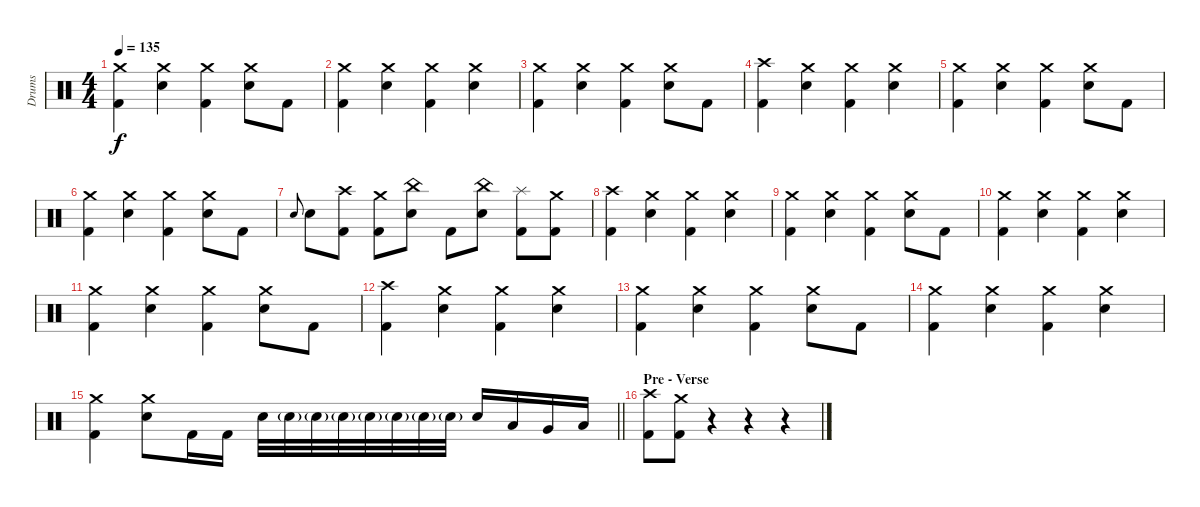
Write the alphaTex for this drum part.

\track ("Drums" "Drums") {instrument percussion}
\staff {score}
\articulation defaults
\ts (4 4)
\tempo 135
\clef neutral
\ks c
("Crash medium (hit)" "Kick (hit) 2").4{dy f} ("Crash medium (hit)" "Electric Snare (hit)").4 ("Crash medium (hit)" "Kick (hit) 2").4 ("Crash medium (hit)" "Electric Snare (hit)").8 "Kick (hit) 2".8 |
("Crash medium (hit)" "Kick (hit) 2").4 ("Crash medium (hit)" "Electric Snare (hit)").4 ("Crash medium (hit)" "Kick (hit) 2").4 ("Crash medium (hit)" "Electric Snare (hit)").4 |
("Crash medium (hit)" "Kick (hit) 2").4 ("Crash medium (hit)" "Electric Snare (hit)").4 ("Crash medium (hit)" "Kick (hit) 2").4 ("Crash medium (hit)" "Electric Snare (hit)").8 "Kick (hit) 2".8 |
("Crash high (hit)" "Kick (hit) 2").4 ("Crash medium (hit)" "Electric Snare (hit)").4 ("Crash medium (hit)" "Kick (hit) 2").4 ("Crash medium (hit)" "Electric Snare (hit)").4 |
("Crash medium (hit)" "Kick (hit) 2").4 ("Crash medium (hit)" "Electric Snare (hit)").4 ("Crash medium (hit)" "Kick (hit) 2").4 ("Crash medium (hit)" "Electric Snare (hit)").8 "Kick (hit) 2".8 |
("Crash medium (hit)" "Kick (hit) 2").4 ("Crash medium (hit)" "Electric Snare (hit)").4 ("Crash medium (hit)" "Kick (hit) 2").4 ("Crash medium (hit)" "Electric Snare (hit)").8 "Kick (hit) 2".8 |
"Electric Snare (hit)".8{gr onbeat} "Electric Snare (hit)".8 ("Crash high (hit)" "Kick (hit) 2").8 ("Crash medium (hit)" "Kick (hit) 2").8 ("China (hit)" "Electric Snare (hit)").8 "Kick (hit) 2".8 ("China (hit)" "Electric Snare (hit)").8 ("Splash (hit)" "Kick (hit) 2").8 ("Crash medium (hit)" "Kick (hit) 2").8 |
("Crash high (hit)" "Kick (hit) 2").4 ("Crash medium (hit)" "Electric Snare (hit)").4 ("Crash medium (hit)" "Kick (hit) 2").4 ("Crash medium (hit)" "Electric Snare (hit)").4 |
("Crash medium (hit)" "Kick (hit) 2").4 ("Crash medium (hit)" "Electric Snare (hit)").4 ("Crash medium (hit)" "Kick (hit) 2").4 ("Crash medium (hit)" "Electric Snare (hit)").8 "Kick (hit) 2".8 |
("Crash medium (hit)" "Kick (hit) 2").4 ("Crash medium (hit)" "Electric Snare (hit)").4 ("Crash medium (hit)" "Kick (hit) 2").4 ("Crash medium (hit)" "Electric Snare (hit)").4 |
("Crash medium (hit)" "Kick (hit) 2").4 ("Crash medium (hit)" "Electric Snare (hit)").4 ("Crash medium (hit)" "Kick (hit) 2").4 ("Crash medium (hit)" "Electric Snare (hit)").8 "Kick (hit) 2".8 |
("Crash high (hit)" "Kick (hit) 2").4 ("Crash medium (hit)" "Electric Snare (hit)").4 ("Crash medium (hit)" "Kick (hit) 2").4 ("Crash medium (hit)" "Electric Snare (hit)").4 |
("Crash medium (hit)" "Kick (hit) 2").4 ("Crash medium (hit)" "Electric Snare (hit)").4 ("Crash medium (hit)" "Kick (hit) 2").4 ("Crash medium (hit)" "Electric Snare (hit)").8 "Kick (hit) 2".8 |
("Crash medium (hit)" "Kick (hit) 2").4 ("Crash medium (hit)" "Electric Snare (hit)").4 ("Crash medium (hit)" "Kick (hit) 2").4 ("Crash medium (hit)" "Electric Snare (hit)").4 |
\barLineRight lightlight
("Crash medium (hit)" "Kick (hit) 2").4 ("Crash medium (hit)" "Electric Snare (hit)").8 "Kick (hit) 2".16 "Kick (hit) 2".16 "Electric Snare (hit)".32 "Electric Snare (hit)"{g}.32 "Electric Snare (hit)"{g}.32 "Electric Snare (hit)"{g}.32 "Electric Snare (hit)"{g}.32 "Electric Snare (hit)"{g}.32 "Electric Snare (hit)"{g}.32 "Electric Snare (hit)"{g}.32 "Electric Snare (hit)".16 "Low Tom (hit)".16 "Very Low Tom (hit)".16 "Low Floor Tom (hit)".16 |
\section ("" "Pre - Verse")
("Crash high (hit)" "Kick (hit) 2").8 ("Crash medium (hit)" "Kick (hit) 2").8 r.4 r.4 r.4
